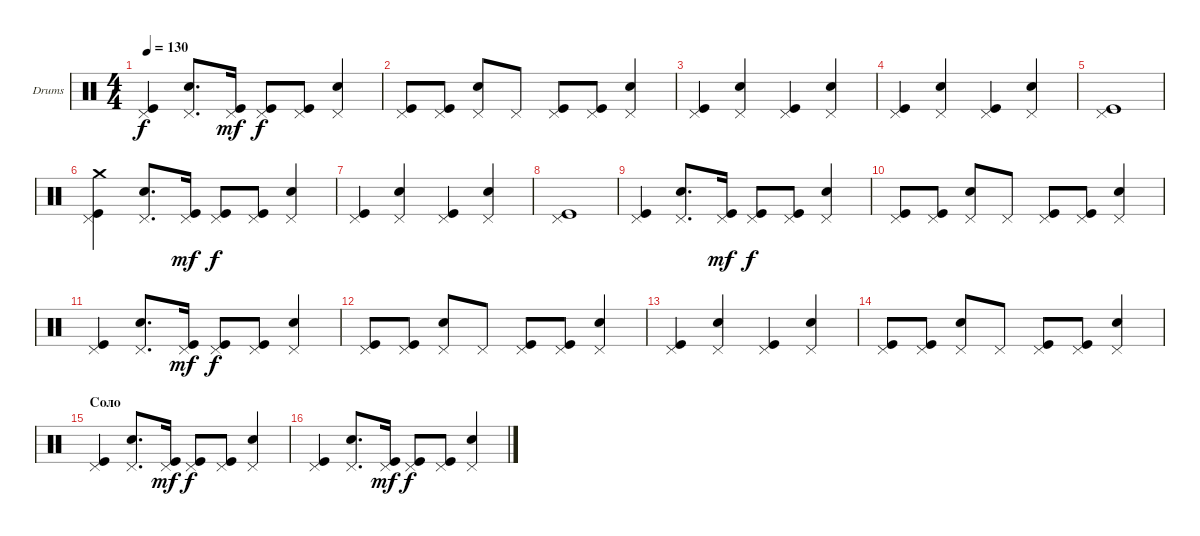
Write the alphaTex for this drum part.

\defaultSystemsLayout 4
\bracketExtendMode groupsimilarinstruments
\firstSystemTrackNameOrientation horizontal
\otherSystemsTrackNameOrientation horizontal
\track ("Е. Кулаков" "Drums") {instrument percussion}
\staff {score}
\articulation defaults
\ts (4 4)
\tempo 130
\clef neutral
\ks c
("Kick (hit)" "Pedal Hi-Hat (hit)").4{dy f} ("Snare (hit) 2" "Pedal Hi-Hat (hit)").8{d} ("Kick (hit)" "Pedal Hi-Hat (hit)").16{dy mf} ("Kick (hit)" "Pedal Hi-Hat (hit)").8{dy f} ("Kick (hit)" "Pedal Hi-Hat (hit)").8 ("Snare (hit) 2" "Pedal Hi-Hat (hit)").4 |
("Kick (hit)" "Pedal Hi-Hat (hit)").8 ("Kick (hit)" "Pedal Hi-Hat (hit)").8 ("Snare (hit) 2" "Pedal Hi-Hat (hit)").8 "Pedal Hi-Hat (hit)".8 ("Kick (hit)" "Pedal Hi-Hat (hit)").8 ("Kick (hit)" "Pedal Hi-Hat (hit)").8 ("Snare (hit) 2" "Pedal Hi-Hat (hit)").4 |
("Kick (hit)" "Pedal Hi-Hat (hit)").4 ("Snare (hit) 2" "Pedal Hi-Hat (hit)").4 ("Kick (hit)" "Pedal Hi-Hat (hit)").4 ("Snare (hit) 2" "Pedal Hi-Hat (hit)").4 |
("Kick (hit)" "Pedal Hi-Hat (hit)").4 ("Snare (hit) 2" "Pedal Hi-Hat (hit)").4 ("Kick (hit)" "Pedal Hi-Hat (hit)").4 ("Snare (hit) 2" "Pedal Hi-Hat (hit)").4 |
("Kick (hit)" "Pedal Hi-Hat (hit)").1 |
("Kick (hit)" "Pedal Hi-Hat (hit)" "Crash medium (hit)").4 ("Snare (hit) 2" "Pedal Hi-Hat (hit)").8{d} ("Kick (hit)" "Pedal Hi-Hat (hit)").16{dy mf} ("Kick (hit)" "Pedal Hi-Hat (hit)").8{dy f} ("Kick (hit)" "Pedal Hi-Hat (hit)").8 ("Snare (hit) 2" "Pedal Hi-Hat (hit)").4 |
("Kick (hit)" "Pedal Hi-Hat (hit)").4 ("Snare (hit) 2" "Pedal Hi-Hat (hit)").4 ("Kick (hit)" "Pedal Hi-Hat (hit)").4 ("Snare (hit) 2" "Pedal Hi-Hat (hit)").4 |
("Kick (hit)" "Pedal Hi-Hat (hit)").1 |
("Kick (hit)" "Pedal Hi-Hat (hit)").4 ("Snare (hit) 2" "Pedal Hi-Hat (hit)").8{d} ("Kick (hit)" "Pedal Hi-Hat (hit)").16{dy mf} ("Kick (hit)" "Pedal Hi-Hat (hit)").8{dy f} ("Kick (hit)" "Pedal Hi-Hat (hit)").8 ("Snare (hit) 2" "Pedal Hi-Hat (hit)").4 |
("Kick (hit)" "Pedal Hi-Hat (hit)").8 ("Kick (hit)" "Pedal Hi-Hat (hit)").8 ("Snare (hit) 2" "Pedal Hi-Hat (hit)").8 "Pedal Hi-Hat (hit)".8 ("Kick (hit)" "Pedal Hi-Hat (hit)").8 ("Kick (hit)" "Pedal Hi-Hat (hit)").8 ("Snare (hit) 2" "Pedal Hi-Hat (hit)").4 |
("Kick (hit)" "Pedal Hi-Hat (hit)").4 ("Snare (hit) 2" "Pedal Hi-Hat (hit)").8{d} ("Kick (hit)" "Pedal Hi-Hat (hit)").16{dy mf} ("Kick (hit)" "Pedal Hi-Hat (hit)").8{dy f} ("Kick (hit)" "Pedal Hi-Hat (hit)").8 ("Snare (hit) 2" "Pedal Hi-Hat (hit)").4 |
("Kick (hit)" "Pedal Hi-Hat (hit)").8 ("Kick (hit)" "Pedal Hi-Hat (hit)").8 ("Snare (hit) 2" "Pedal Hi-Hat (hit)").8 "Pedal Hi-Hat (hit)".8 ("Kick (hit)" "Pedal Hi-Hat (hit)").8 ("Kick (hit)" "Pedal Hi-Hat (hit)").8 ("Snare (hit) 2" "Pedal Hi-Hat (hit)").4 |
("Kick (hit)" "Pedal Hi-Hat (hit)").4 ("Snare (hit) 2" "Pedal Hi-Hat (hit)").4 ("Kick (hit)" "Pedal Hi-Hat (hit)").4 ("Snare (hit) 2" "Pedal Hi-Hat (hit)").4 |
("Kick (hit)" "Pedal Hi-Hat (hit)").8 ("Kick (hit)" "Pedal Hi-Hat (hit)").8 ("Snare (hit) 2" "Pedal Hi-Hat (hit)").8 "Pedal Hi-Hat (hit)".8 ("Kick (hit)" "Pedal Hi-Hat (hit)").8 ("Kick (hit)" "Pedal Hi-Hat (hit)").8 ("Snare (hit) 2" "Pedal Hi-Hat (hit)").4 |
\section ("" "Соло")
("Kick (hit)" "Pedal Hi-Hat (hit)").4 ("Snare (hit) 2" "Pedal Hi-Hat (hit)").8{d} ("Kick (hit)" "Pedal Hi-Hat (hit)").16{dy mf} ("Kick (hit)" "Pedal Hi-Hat (hit)").8{dy f} ("Kick (hit)" "Pedal Hi-Hat (hit)").8 ("Snare (hit) 2" "Pedal Hi-Hat (hit)").4 |
("Kick (hit)" "Pedal Hi-Hat (hit)").4 ("Snare (hit) 2" "Pedal Hi-Hat (hit)").8{d} ("Kick (hit)" "Pedal Hi-Hat (hit)").16{dy mf} ("Kick (hit)" "Pedal Hi-Hat (hit)").8{dy f} ("Kick (hit)" "Pedal Hi-Hat (hit)").8 ("Snare (hit) 2" "Pedal Hi-Hat (hit)").4
